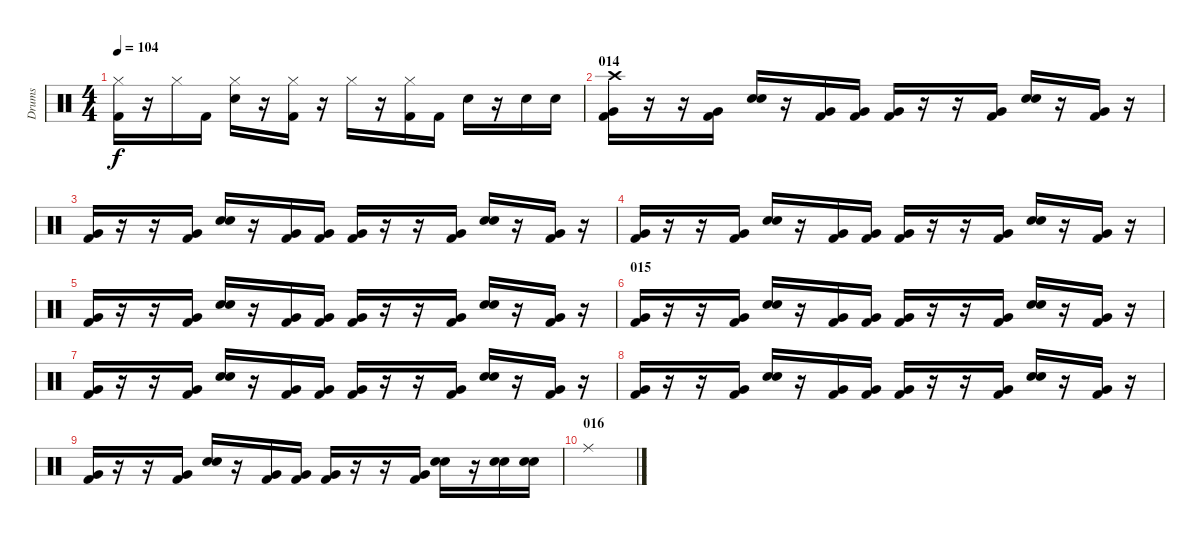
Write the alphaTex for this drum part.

\track ("Drums" "Drums") {instrument percussion}
\staff {score}
\articulation defaults
\ts (4 4)
\tempo 104
\clef neutral
\ks c
("Hi-Hat (closed)" "Kick (hit) 2").16{dy f} r.16 "Hi-Hat (closed)".16 "Kick (hit) 2".16 ("Hi-Hat (closed)" "Electric Snare (hit)").16 r.16 ("Hi-Hat (closed)" "Kick (hit) 2").16 r.16 "Hi-Hat (closed)".16 r.16 ("Hi-Hat (closed)" "Kick (hit) 2").16 "Kick (hit) 2".16 "Electric Snare (hit)".16 r.16 "Electric Snare (hit)".16 "Electric Snare (hit)".16 |
\section ("" "014")
("Very Low Tom (hit)" "Kick (hit) 2" "Crash high (hit)").16 r.16 r.16 ("Very Low Tom (hit)" "Kick (hit) 2").16 ("Electric Snare (hit)" "Snare (hit) 2").16 r.16 ("Very Low Tom (hit)" "Kick (hit) 2").16 ("Very Low Tom (hit)" "Kick (hit) 2").16 ("Very Low Tom (hit)" "Kick (hit) 2").16 r.16 r.16 ("Very Low Tom (hit)" "Kick (hit) 2").16 ("Electric Snare (hit)" "Snare (hit) 2").16 r.16 ("Very Low Tom (hit)" "Kick (hit) 2").16 r.16 |
("Very Low Tom (hit)" "Kick (hit) 2").16 r.16 r.16 ("Very Low Tom (hit)" "Kick (hit) 2").16 ("Electric Snare (hit)" "Snare (hit) 2").16 r.16 ("Very Low Tom (hit)" "Kick (hit) 2").16 ("Very Low Tom (hit)" "Kick (hit) 2").16 ("Very Low Tom (hit)" "Kick (hit) 2").16 r.16 r.16 ("Very Low Tom (hit)" "Kick (hit) 2").16 ("Electric Snare (hit)" "Snare (hit) 2").16 r.16 ("Very Low Tom (hit)" "Kick (hit) 2").16 r.16 |
("Very Low Tom (hit)" "Kick (hit) 2").16 r.16 r.16 ("Very Low Tom (hit)" "Kick (hit) 2").16 ("Electric Snare (hit)" "Snare (hit) 2").16 r.16 ("Very Low Tom (hit)" "Kick (hit) 2").16 ("Very Low Tom (hit)" "Kick (hit) 2").16 ("Very Low Tom (hit)" "Kick (hit) 2").16 r.16 r.16 ("Very Low Tom (hit)" "Kick (hit) 2").16 ("Electric Snare (hit)" "Snare (hit) 2").16 r.16 ("Very Low Tom (hit)" "Kick (hit) 2").16 r.16 |
("Very Low Tom (hit)" "Kick (hit) 2").16 r.16 r.16 ("Very Low Tom (hit)" "Kick (hit) 2").16 ("Electric Snare (hit)" "Snare (hit) 2").16 r.16 ("Very Low Tom (hit)" "Kick (hit) 2").16 ("Very Low Tom (hit)" "Kick (hit) 2").16 ("Very Low Tom (hit)" "Kick (hit) 2").16 r.16 r.16 ("Very Low Tom (hit)" "Kick (hit) 2").16 ("Electric Snare (hit)" "Snare (hit) 2").16 r.16 ("Very Low Tom (hit)" "Kick (hit) 2").16 r.16 |
\section ("" "015")
("Very Low Tom (hit)" "Kick (hit) 2").16 r.16 r.16 ("Very Low Tom (hit)" "Kick (hit) 2").16 ("Electric Snare (hit)" "Snare (hit) 2").16 r.16 ("Very Low Tom (hit)" "Kick (hit) 2").16 ("Very Low Tom (hit)" "Kick (hit) 2").16 ("Very Low Tom (hit)" "Kick (hit) 2").16 r.16 r.16 ("Very Low Tom (hit)" "Kick (hit) 2").16 ("Electric Snare (hit)" "Snare (hit) 2").16 r.16 ("Very Low Tom (hit)" "Kick (hit) 2").16 r.16 |
("Very Low Tom (hit)" "Kick (hit) 2").16 r.16 r.16 ("Very Low Tom (hit)" "Kick (hit) 2").16 ("Electric Snare (hit)" "Snare (hit) 2").16 r.16 ("Very Low Tom (hit)" "Kick (hit) 2").16 ("Very Low Tom (hit)" "Kick (hit) 2").16 ("Very Low Tom (hit)" "Kick (hit) 2").16 r.16 r.16 ("Very Low Tom (hit)" "Kick (hit) 2").16 ("Electric Snare (hit)" "Snare (hit) 2").16 r.16 ("Very Low Tom (hit)" "Kick (hit) 2").16 r.16 |
("Very Low Tom (hit)" "Kick (hit) 2").16 r.16 r.16 ("Very Low Tom (hit)" "Kick (hit) 2").16 ("Electric Snare (hit)" "Snare (hit) 2").16 r.16 ("Very Low Tom (hit)" "Kick (hit) 2").16 ("Very Low Tom (hit)" "Kick (hit) 2").16 ("Very Low Tom (hit)" "Kick (hit) 2").16 r.16 r.16 ("Very Low Tom (hit)" "Kick (hit) 2").16 ("Electric Snare (hit)" "Snare (hit) 2").16 r.16 ("Very Low Tom (hit)" "Kick (hit) 2").16 r.16 |
("Very Low Tom (hit)" "Kick (hit) 2").16 r.16 r.16 ("Very Low Tom (hit)" "Kick (hit) 2").16 ("Electric Snare (hit)" "Snare (hit) 2").16 r.16 ("Very Low Tom (hit)" "Kick (hit) 2").16 ("Very Low Tom (hit)" "Kick (hit) 2").16 ("Very Low Tom (hit)" "Kick (hit) 2").16 r.16 r.16 ("Very Low Tom (hit)" "Kick (hit) 2").16 ("Electric Snare (hit)" "Snare (hit) 2").16 r.16 ("Electric Snare (hit)" "Snare (hit) 2").16 ("Electric Snare (hit)" "Snare (hit) 2").16 |
\section ("" "016")
"Ride (middle)".1
